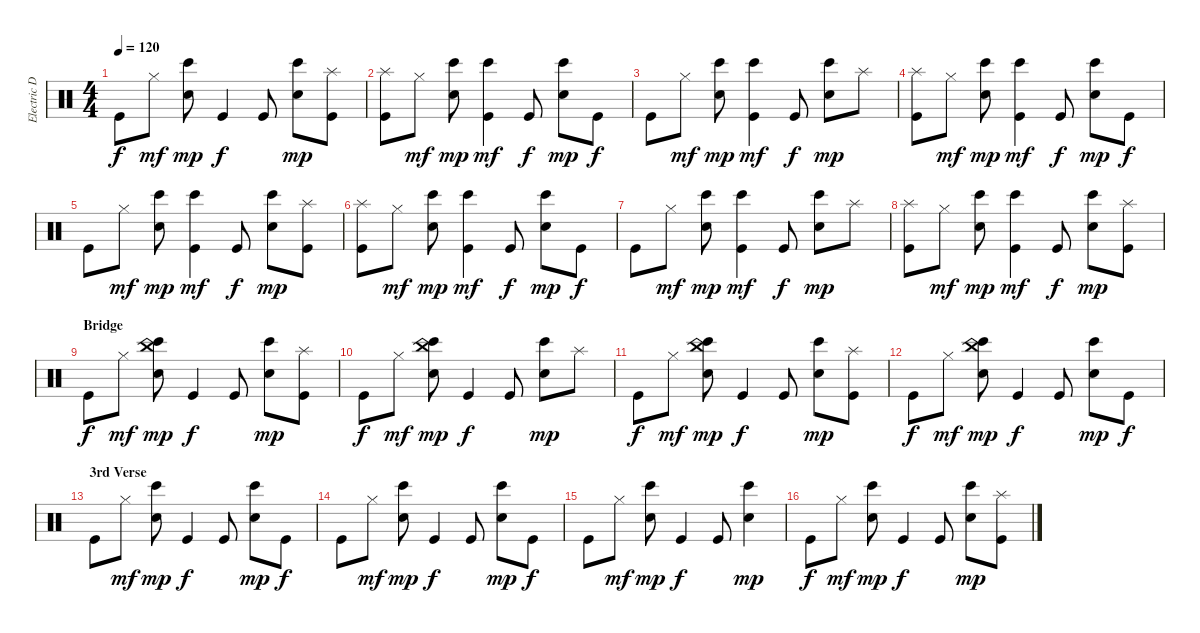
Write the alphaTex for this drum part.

\track ("Electric Drums" "Electric D") {instrument percussion}
\staff {score}
\articulation defaults
\ts (4 4)
\tempo 120
\clef neutral
\ks c "Kick (hit)".8{dy f} "Hi-Hat (closed)".8{dy mf}
("Bongo High (hit)" "Electric Snare (hit)").8{dy mp} "Kick (hit)".4{dy f} "Kick (hit)".8 ("Bongo High (hit)" "Electric Snare (hit)").8{dy mp} ("Splash (hit)" "Kick (hit)").8 |
("Splash (hit)" "Kick (hit)").8 "Hi-Hat (closed)".8{dy mf} ("Bongo High (hit)" "Electric Snare (hit)").8{dy mp} ("Bongo High (hit)" "Kick (hit)").4{dy mf} "Kick (hit)".8{dy f} ("Bongo High (hit)" "Electric Snare (hit)").8{dy mp} "Kick (hit)".8{dy f} |
"Kick (hit)".8 "Hi-Hat (closed)".8{dy mf} ("Bongo High (hit)" "Electric Snare (hit)").8{dy mp} ("Bongo High (hit)" "Kick (hit)").4{dy mf} "Kick (hit)".8{dy f} ("Bongo High (hit)" "Electric Snare (hit)").8{dy mp} "Splash (hit)".8 |
("Splash (hit)" "Kick (hit)").8 "Hi-Hat (closed)".8{dy mf} ("Bongo High (hit)" "Electric Snare (hit)").8{dy mp} ("Bongo High (hit)" "Kick (hit)").4{dy mf} "Kick (hit)".8{dy f} ("Bongo High (hit)" "Electric Snare (hit)").8{dy mp} "Kick (hit)".8{dy f} |
"Kick (hit)".8 "Hi-Hat (closed)".8{dy mf} ("Bongo High (hit)" "Electric Snare (hit)").8{dy mp} ("Bongo High (hit)" "Kick (hit)").4{dy mf} "Kick (hit)".8{dy f} ("Bongo High (hit)" "Electric Snare (hit)").8{dy mp} ("Splash (hit)" "Kick (hit)").8 |
("Splash (hit)" "Kick (hit)").8 "Hi-Hat (closed)".8{dy mf} ("Bongo High (hit)" "Electric Snare (hit)").8{dy mp} ("Bongo High (hit)" "Kick (hit)").4{dy mf} "Kick (hit)".8{dy f} ("Bongo High (hit)" "Electric Snare (hit)").8{dy mp} "Kick (hit)".8{dy f} |
"Kick (hit)".8 "Hi-Hat (closed)".8{dy mf} ("Bongo High (hit)" "Electric Snare (hit)").8{dy mp} ("Bongo High (hit)" "Kick (hit)").4{dy mf} "Kick (hit)".8{dy f} ("Bongo High (hit)" "Electric Snare (hit)").8{dy mp} "Splash (hit)".8 |
("Splash (hit)" "Kick (hit)").8 "Hi-Hat (closed)".8{dy mf} ("Bongo High (hit)" "Electric Snare (hit)").8{dy mp} ("Bongo High (hit)" "Kick (hit)").4{dy mf} "Kick (hit)".8{dy f} ("Bongo High (hit)" "Electric Snare (hit)").8{dy mp} ("Splash (hit)" "Kick (hit)").8 |
\section ("" "Bridge")
"Kick (hit)".8{dy f} "Hi-Hat (closed)".8{dy mf} ("China (hit)" "Bongo High (hit)" "Electric Snare (hit)").8{dy mp} "Kick (hit)".4{dy f} "Kick (hit)".8 ("Bongo High (hit)" "Electric Snare (hit)").8{dy mp} ("Splash (hit)" "Kick (hit)").8 |
"Kick (hit)".8{dy f} "Hi-Hat (closed)".8{dy mf} ("China (hit)" "Bongo High (hit)" "Electric Snare (hit)").8{dy mp} "Kick (hit)".4{dy f} "Kick (hit)".8 ("Bongo High (hit)" "Electric Snare (hit)").8{dy mp} "Splash (hit)".8 |
"Kick (hit)".8{dy f} "Hi-Hat (closed)".8{dy mf} ("China (hit)" "Bongo High (hit)" "Electric Snare (hit)").8{dy mp} "Kick (hit)".4{dy f} "Kick (hit)".8 ("Bongo High (hit)" "Electric Snare (hit)").8{dy mp} ("Splash (hit)" "Kick (hit)").8 |
"Kick (hit)".8{dy f} "Hi-Hat (closed)".8{dy mf} ("China (hit)" "Bongo High (hit)" "Electric Snare (hit)").8{dy mp} "Kick (hit)".4{dy f} "Kick (hit)".8 ("Bongo High (hit)" "Electric Snare (hit)").8{dy mp} "Kick (hit)".8{dy f} |
\section ("" "3rd Verse")
"Kick (hit)".8 "Hi-Hat (closed)".8{dy mf} ("Bongo High (hit)" "Electric Snare (hit)").8{dy mp} "Kick (hit)".4{dy f} "Kick (hit)".8 ("Bongo High (hit)" "Electric Snare (hit)").8{dy mp} "Kick (hit)".8{dy f} |
"Kick (hit)".8 "Hi-Hat (closed)".8{dy mf} ("Bongo High (hit)" "Electric Snare (hit)").8{dy mp} "Kick (hit)".4{dy f} "Kick (hit)".8 ("Bongo High (hit)" "Electric Snare (hit)").8{dy mp} "Kick (hit)".8{dy f} |
"Kick (hit)".8 "Hi-Hat (closed)".8{dy mf} ("Bongo High (hit)" "Electric Snare (hit)").8{dy mp} "Kick (hit)".4{dy f} "Kick (hit)".8 ("Bongo High (hit)" "Electric Snare (hit)").4{dy mp} |
"Kick (hit)".8{dy f} "Hi-Hat (closed)".8{dy mf} ("Bongo High (hit)" "Electric Snare (hit)").8{dy mp} "Kick (hit)".4{dy f} "Kick (hit)".8 ("Bongo High (hit)" "Electric Snare (hit)").8{dy mp} ("Splash (hit)" "Kick (hit)").8
